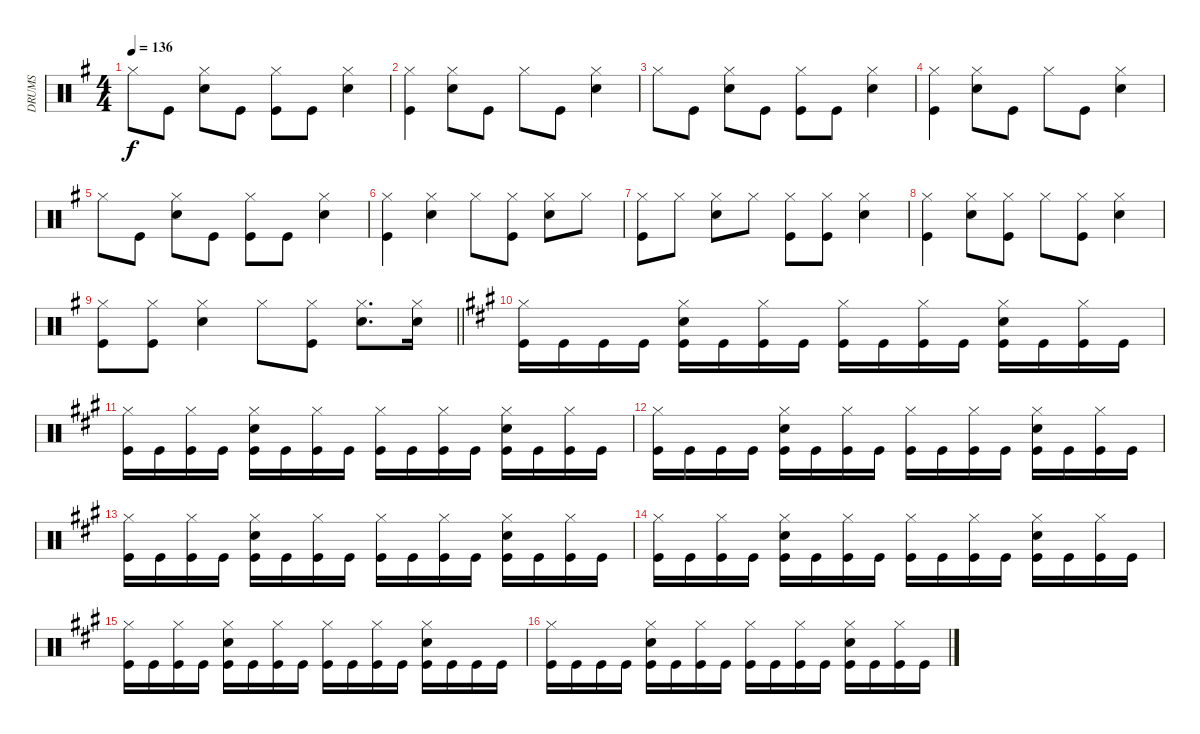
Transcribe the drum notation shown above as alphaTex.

\track ("DRUMS" "DRUMS") {instrument percussion}
\staff {score}
\articulation defaults
\ts (4 4)
\tempo 136
\clef neutral
\ks eminor "Hi-Hat (closed)".8{dy f} "Kick (hit)".8
("Hi-Hat (closed)" "Snare (hit) 2").8 "Kick (hit)".8 ("Hi-Hat (closed)" "Kick (hit)").8 "Kick (hit)".8 ("Hi-Hat (closed)" "Snare (hit) 2").4 |
("Hi-Hat (closed)" "Kick (hit)").4 ("Hi-Hat (closed)" "Snare (hit) 2").8 "Kick (hit)".8 "Hi-Hat (closed)".8 "Kick (hit)".8 ("Hi-Hat (closed)" "Snare (hit) 2").4 |
"Hi-Hat (closed)".8 "Kick (hit)".8 ("Hi-Hat (closed)" "Snare (hit) 2").8 "Kick (hit)".8 ("Hi-Hat (closed)" "Kick (hit)").8 "Kick (hit)".8 ("Hi-Hat (closed)" "Snare (hit) 2").4 |
("Hi-Hat (closed)" "Kick (hit)").4 ("Hi-Hat (closed)" "Snare (hit) 2").8 "Kick (hit)".8 "Hi-Hat (closed)".8 "Kick (hit)".8 ("Hi-Hat (closed)" "Snare (hit) 2").4 |
"Hi-Hat (closed)".8 "Kick (hit)".8 ("Hi-Hat (closed)" "Snare (hit) 2").8 "Kick (hit)".8 ("Hi-Hat (closed)" "Kick (hit)").8 "Kick (hit)".8 ("Hi-Hat (closed)" "Snare (hit) 2").4 |
("Hi-Hat (closed)" "Kick (hit)").4 ("Hi-Hat (closed)" "Snare (hit) 2").4 "Hi-Hat (closed)".8 ("Hi-Hat (closed)" "Kick (hit)").8 ("Hi-Hat (closed)" "Snare (hit) 2").8 "Hi-Hat (closed)".8 |
("Hi-Hat (closed)" "Kick (hit)").8 "Hi-Hat (closed)".8 ("Hi-Hat (closed)" "Snare (hit) 2").8 "Hi-Hat (closed)".8 ("Hi-Hat (closed)" "Kick (hit)").8 ("Hi-Hat (closed)" "Kick (hit)").8 ("Hi-Hat (closed)" "Snare (hit) 2").4 |
("Hi-Hat (closed)" "Kick (hit)").4 ("Hi-Hat (closed)" "Snare (hit) 2").8 ("Hi-Hat (closed)" "Kick (hit)").8 "Hi-Hat (closed)".8 ("Hi-Hat (closed)" "Kick (hit)").8 ("Hi-Hat (closed)" "Snare (hit) 2").4 |
\barLineRight lightlight
("Hi-Hat (closed)" "Kick (hit)").8 ("Hi-Hat (closed)" "Kick (hit)").8 ("Hi-Hat (closed)" "Snare (hit) 2").4 "Hi-Hat (closed)".8 ("Hi-Hat (closed)" "Kick (hit)").8 ("Hi-Hat (closed)" "Snare (hit) 2").8{d} ("Hi-Hat (closed)" "Snare (hit) 2").16 |
\ks f#minor
("Hi-Hat (closed)" "Kick (hit)").16 "Kick (hit)".16 "Kick (hit)".16 "Kick (hit)".16 ("Hi-Hat (closed)" "Kick (hit)" "Snare (hit) 2").16 "Kick (hit)".16 ("Hi-Hat (closed)" "Kick (hit)").16 "Kick (hit)".16 ("Hi-Hat (closed)" "Kick (hit)").16 "Kick (hit)".16 ("Hi-Hat (closed)" "Kick (hit)").16 "Kick (hit)".16 ("Hi-Hat (closed)" "Kick (hit)" "Snare (hit) 2").16 "Kick (hit)".16 ("Hi-Hat (closed)" "Kick (hit)").16 "Kick (hit)".16 |
("Hi-Hat (closed)" "Kick (hit)").16 "Kick (hit)".16 ("Hi-Hat (closed)" "Kick (hit)").16 "Kick (hit)".16 ("Hi-Hat (closed)" "Kick (hit)" "Snare (hit) 2").16 "Kick (hit)".16 ("Hi-Hat (closed)" "Kick (hit)").16 "Kick (hit)".16 ("Hi-Hat (closed)" "Kick (hit)").16 "Kick (hit)".16 ("Hi-Hat (closed)" "Kick (hit)").16 "Kick (hit)".16 ("Hi-Hat (closed)" "Kick (hit)" "Snare (hit) 2").16 "Kick (hit)".16 ("Hi-Hat (closed)" "Kick (hit)").16 "Kick (hit)".16 |
("Hi-Hat (closed)" "Kick (hit)").16 "Kick (hit)".16 "Kick (hit)".16 "Kick (hit)".16 ("Hi-Hat (closed)" "Kick (hit)" "Snare (hit) 2").16 "Kick (hit)".16 ("Hi-Hat (closed)" "Kick (hit)").16 "Kick (hit)".16 ("Hi-Hat (closed)" "Kick (hit)").16 "Kick (hit)".16 ("Hi-Hat (closed)" "Kick (hit)").16 "Kick (hit)".16 ("Hi-Hat (closed)" "Kick (hit)" "Snare (hit) 2").16 "Kick (hit)".16 ("Hi-Hat (closed)" "Kick (hit)").16 "Kick (hit)".16 |
("Hi-Hat (closed)" "Kick (hit)").16 "Kick (hit)".16 ("Hi-Hat (closed)" "Kick (hit)").16 "Kick (hit)".16 ("Hi-Hat (closed)" "Kick (hit)" "Snare (hit) 2").16 "Kick (hit)".16 ("Hi-Hat (closed)" "Kick (hit)").16 "Kick (hit)".16 ("Hi-Hat (closed)" "Kick (hit)").16 "Kick (hit)".16 ("Hi-Hat (closed)" "Kick (hit)").16 "Kick (hit)".16 ("Hi-Hat (closed)" "Kick (hit)" "Snare (hit) 2").16 "Kick (hit)".16 ("Hi-Hat (closed)" "Kick (hit)").16 "Kick (hit)".16 |
("Hi-Hat (closed)" "Kick (hit)").16 "Kick (hit)".16 ("Hi-Hat (closed)" "Kick (hit)").16 "Kick (hit)".16 ("Hi-Hat (closed)" "Kick (hit)" "Snare (hit) 2").16 "Kick (hit)".16 ("Hi-Hat (closed)" "Kick (hit)").16 "Kick (hit)".16 ("Hi-Hat (closed)" "Kick (hit)").16 "Kick (hit)".16 ("Hi-Hat (closed)" "Kick (hit)").16 "Kick (hit)".16 ("Hi-Hat (closed)" "Kick (hit)" "Snare (hit) 2").16 "Kick (hit)".16 ("Hi-Hat (closed)" "Kick (hit)").16 "Kick (hit)".16 |
("Hi-Hat (closed)" "Kick (hit)").16 "Kick (hit)".16 ("Hi-Hat (closed)" "Kick (hit)").16 "Kick (hit)".16 ("Hi-Hat (closed)" "Kick (hit)" "Snare (hit) 2").16 "Kick (hit)".16 ("Hi-Hat (closed)" "Kick (hit)").16 "Kick (hit)".16 ("Hi-Hat (closed)" "Kick (hit)").16 "Kick (hit)".16 ("Hi-Hat (closed)" "Kick (hit)").16 "Kick (hit)".16 ("Hi-Hat (closed)" "Kick (hit)" "Snare (hit) 2").16 "Kick (hit)".16 "Kick (hit)".16 "Kick (hit)".16 |
("Hi-Hat (closed)" "Kick (hit)").16 "Kick (hit)".16 "Kick (hit)".16 "Kick (hit)".16 ("Hi-Hat (closed)" "Kick (hit)" "Snare (hit) 2").16 "Kick (hit)".16 ("Hi-Hat (closed)" "Kick (hit)").16 "Kick (hit)".16 ("Hi-Hat (closed)" "Kick (hit)").16 "Kick (hit)".16 ("Hi-Hat (closed)" "Kick (hit)").16 "Kick (hit)".16 ("Hi-Hat (closed)" "Kick (hit)" "Snare (hit) 2").16 "Kick (hit)".16 ("Hi-Hat (closed)" "Kick (hit)").16 "Kick (hit)".16
